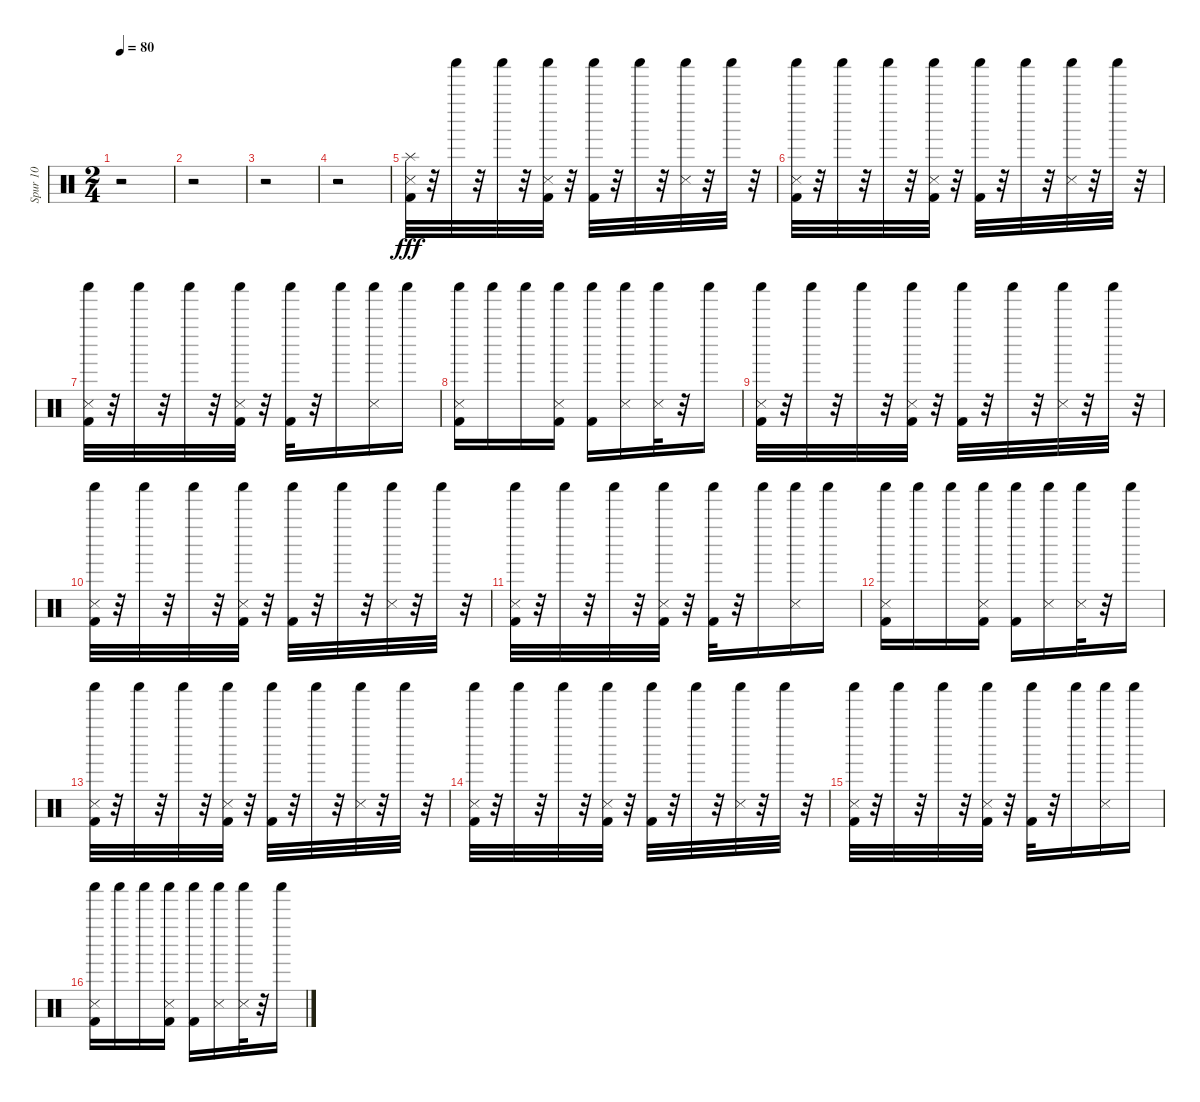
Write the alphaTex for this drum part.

\track ("Spur 10" "Spur 10") {instrument percussion}
\staff {score}
\articulation defaults
\ts (2 4)
\tempo 80
\clef neutral
\ks c
r.2{dy fff} |
r.2 |
r.2 |
r.2 |
("Splash (hit)" "Snare (side stick) 3" "Kick (hit) 2").32 r.32 "Shaker (hit)".32 r.32 "Shaker (hit)".32 r.32 ("Shaker (hit)" "Snare (side stick) 3" "Kick (hit) 2").32 r.32 ("Shaker (hit)" "Kick (hit) 2").32 r.32 "Shaker (hit)".32 r.32 ("Shaker (hit)" "Snare (side stick) 3").32 r.32 "Shaker (hit)".32 r.32 |
("Shaker (hit)" "Snare (side stick) 3" "Kick (hit) 2").32 r.32 "Shaker (hit)".32 r.32 "Shaker (hit)".32 r.32 ("Shaker (hit)" "Kick (hit) 2" "Snare (side stick) 3").32 r.32 ("Shaker (hit)" "Kick (hit) 2").32 r.32 "Shaker (hit)".32 r.32 ("Shaker (hit)" "Snare (side stick) 3").32 r.32 "Shaker (hit)".32 r.32 |
("Shaker (hit)" "Kick (hit) 2" "Snare (side stick) 3").32 r.32 "Shaker (hit)".32 r.32 "Shaker (hit)".32 r.32 ("Shaker (hit)" "Kick (hit) 2" "Snare (side stick) 3").32 r.32 ("Shaker (hit)" "Kick (hit) 2").32 r.32 "Shaker (hit)".16 ("Shaker (hit)" "Snare (side stick) 3").16 "Shaker (hit)".16 |
("Shaker (hit)" "Snare (side stick) 3" "Kick (hit) 2").16 "Shaker (hit)".16 "Shaker (hit)".16 ("Shaker (hit)" "Kick (hit) 2" "Snare (side stick) 3").16 ("Shaker (hit)" "Kick (hit) 2").16 ("Shaker (hit)" "Snare (side stick) 3").16 ("Shaker (hit)" "Snare (side stick) 3").32 r.32 "Shaker (hit)".16 |
("Shaker (hit)" "Snare (side stick) 3" "Kick (hit) 2").32 r.32 "Shaker (hit)".32 r.32 "Shaker (hit)".32 r.32 ("Shaker (hit)" "Snare (side stick) 3" "Kick (hit) 2").32 r.32 ("Shaker (hit)" "Kick (hit) 2").32 r.32 "Shaker (hit)".32 r.32 ("Shaker (hit)" "Snare (side stick) 3").32 r.32 "Shaker (hit)".32 r.32 |
("Shaker (hit)" "Snare (side stick) 3" "Kick (hit) 2").32 r.32 "Shaker (hit)".32 r.32 "Shaker (hit)".32 r.32 ("Shaker (hit)" "Kick (hit) 2" "Snare (side stick) 3").32 r.32 ("Shaker (hit)" "Kick (hit) 2").32 r.32 "Shaker (hit)".32 r.32 ("Shaker (hit)" "Snare (side stick) 3").32 r.32 "Shaker (hit)".32 r.32 |
("Shaker (hit)" "Kick (hit) 2" "Snare (side stick) 3").32 r.32 "Shaker (hit)".32 r.32 "Shaker (hit)".32 r.32 ("Shaker (hit)" "Kick (hit) 2" "Snare (side stick) 3").32 r.32 ("Shaker (hit)" "Kick (hit) 2").32 r.32 "Shaker (hit)".16 ("Shaker (hit)" "Snare (side stick) 3").16 "Shaker (hit)".16 |
("Shaker (hit)" "Snare (side stick) 3" "Kick (hit) 2").16 "Shaker (hit)".16 "Shaker (hit)".16 ("Shaker (hit)" "Kick (hit) 2" "Snare (side stick) 3").16 ("Shaker (hit)" "Kick (hit) 2").16 ("Shaker (hit)" "Snare (side stick) 3").16 ("Shaker (hit)" "Snare (side stick) 3").32 r.32 "Shaker (hit)".16 |
("Shaker (hit)" "Snare (side stick) 3" "Kick (hit) 2").32 r.32 "Shaker (hit)".32 r.32 "Shaker (hit)".32 r.32 ("Shaker (hit)" "Snare (side stick) 3" "Kick (hit) 2").32 r.32 ("Shaker (hit)" "Kick (hit) 2").32 r.32 "Shaker (hit)".32 r.32 ("Shaker (hit)" "Snare (side stick) 3").32 r.32 "Shaker (hit)".32 r.32 |
("Shaker (hit)" "Snare (side stick) 3" "Kick (hit) 2").32 r.32 "Shaker (hit)".32 r.32 "Shaker (hit)".32 r.32 ("Shaker (hit)" "Kick (hit) 2" "Snare (side stick) 3").32 r.32 ("Shaker (hit)" "Kick (hit) 2").32 r.32 "Shaker (hit)".32 r.32 ("Shaker (hit)" "Snare (side stick) 3").32 r.32 "Shaker (hit)".32 r.32 |
("Shaker (hit)" "Kick (hit) 2" "Snare (side stick) 3").32 r.32 "Shaker (hit)".32 r.32 "Shaker (hit)".32 r.32 ("Shaker (hit)" "Kick (hit) 2" "Snare (side stick) 3").32 r.32 ("Shaker (hit)" "Kick (hit) 2").32 r.32 "Shaker (hit)".16 ("Shaker (hit)" "Snare (side stick) 3").16 "Shaker (hit)".16 |
("Shaker (hit)" "Snare (side stick) 3" "Kick (hit) 2").16 "Shaker (hit)".16 "Shaker (hit)".16 ("Shaker (hit)" "Kick (hit) 2" "Snare (side stick) 3").16 ("Shaker (hit)" "Kick (hit) 2").16 ("Shaker (hit)" "Snare (side stick) 3").16 ("Shaker (hit)" "Snare (side stick) 3").32 r.32 "Shaker (hit)".16
